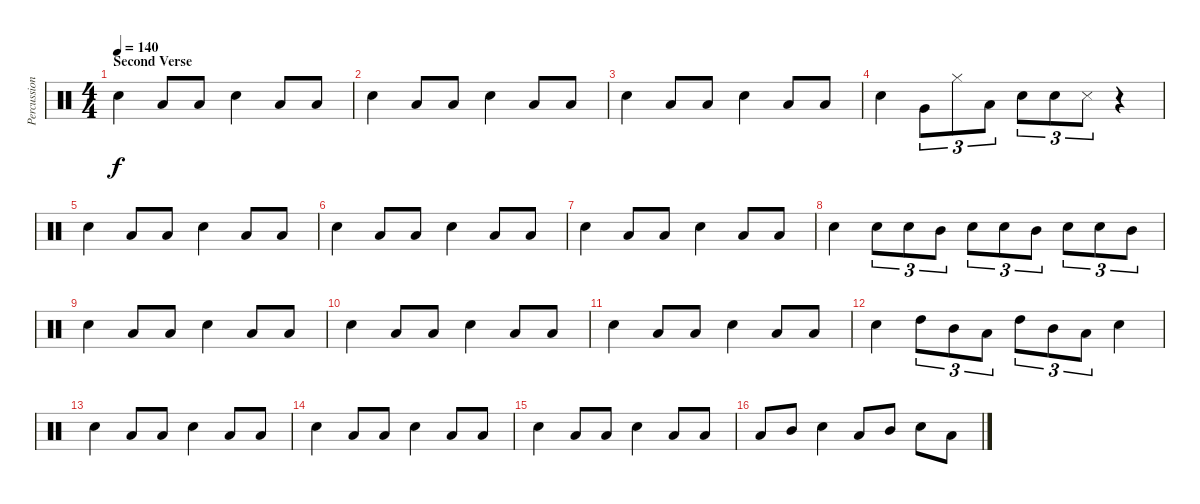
\track ("Percussion" "Percussion") {instrument percussion}
\staff {score}
\articulation defaults
\ts (4 4)
\section ("" "Second Verse")
\tempo 140
\clef neutral
\ks c "Electric Snare (hit)".4{dy f} "Low Floor Tom (hit)".8 "Low Floor Tom (hit)".8 "Electric Snare (hit)".4 "Low Floor Tom (hit)".8 "Low Floor Tom (hit)".8
|
"Electric Snare (hit)".4 "Low Floor Tom (hit)".8 "Low Floor Tom (hit)".8 "Electric Snare (hit)".4 "Low Floor Tom (hit)".8 "Low Floor Tom (hit)".8 |
"Electric Snare (hit)".4 "Low Floor Tom (hit)".8 "Low Floor Tom (hit)".8 "Electric Snare (hit)".4 "Low Floor Tom (hit)".8 "Low Floor Tom (hit)".8 |
"Electric Snare (hit)".4 "Very Low Tom (hit)".8{tu (3 2)} "Hi-Hat (closed)".8{tu (3 2)} "Low Floor Tom (hit)".8{tu (3 2)} "Electric Snare (hit)".8{tu (3 2)} "Snare (hit) 2".8{tu (3 2)} "Snare (side stick) 3".8{tu (3 2)} r.4 |
"Electric Snare (hit)".4 "Low Floor Tom (hit)".8 "Low Floor Tom (hit)".8 "Electric Snare (hit)".4 "Low Floor Tom (hit)".8 "Low Floor Tom (hit)".8 |
"Electric Snare (hit)".4 "Low Floor Tom (hit)".8 "Low Floor Tom (hit)".8 "Electric Snare (hit)".4 "Low Floor Tom (hit)".8 "Low Floor Tom (hit)".8 |
"Electric Snare (hit)".4 "Low Floor Tom (hit)".8 "Low Floor Tom (hit)".8 "Electric Snare (hit)".4 "Low Floor Tom (hit)".8 "Low Floor Tom (hit)".8 |
"Electric Snare (hit)".4 "Snare (hit) 2".8{tu (3 2)} "Snare (hit) 2".8{tu (3 2)} "Mid Tom (hit)".8{tu (3 2)} "Snare (hit) 2".8{tu (3 2)} "Snare (hit) 2".8{tu (3 2)} "Mid Tom (hit)".8{tu (3 2)} "Snare (hit) 2".8{tu (3 2)} "Snare (hit) 2".8{tu (3 2)} "Mid Tom (hit)".8{tu (3 2)} |
"Electric Snare (hit)".4 "Low Floor Tom (hit)".8 "Low Floor Tom (hit)".8 "Electric Snare (hit)".4 "Low Floor Tom (hit)".8 "Low Floor Tom (hit)".8 |
"Electric Snare (hit)".4 "Low Floor Tom (hit)".8 "Low Floor Tom (hit)".8 "Electric Snare (hit)".4 "Low Floor Tom (hit)".8 "Low Floor Tom (hit)".8 |
"Electric Snare (hit)".4 "Low Floor Tom (hit)".8 "Low Floor Tom (hit)".8 "Electric Snare (hit)".4 "Low Floor Tom (hit)".8 "Low Floor Tom (hit)".8 |
"Electric Snare (hit)".4 "High Tom (hit)".8{tu (3 2)} "Mid Tom (hit)".8{tu (3 2)} "Low Tom (hit)".8{tu (3 2)} "High Tom (hit)".8{tu (3 2)} "Mid Tom (hit)".8{tu (3 2)} "Low Tom (hit)".8{tu (3 2)} "Electric Snare (hit)".4 |
"Electric Snare (hit)".4 "Low Floor Tom (hit)".8 "Low Floor Tom (hit)".8 "Electric Snare (hit)".4 "Low Floor Tom (hit)".8 "Low Floor Tom (hit)".8 |
"Electric Snare (hit)".4 "Low Floor Tom (hit)".8 "Low Floor Tom (hit)".8 "Electric Snare (hit)".4 "Low Floor Tom (hit)".8 "Low Floor Tom (hit)".8 |
"Electric Snare (hit)".4 "Low Floor Tom (hit)".8 "Low Floor Tom (hit)".8 "Electric Snare (hit)".4 "Low Floor Tom (hit)".8 "Low Floor Tom (hit)".8 |
"Low Tom (hit)".8 "Mid Tom (hit)".8 "Snare (hit) 2".4 "Low Tom (hit)".8 "Mid Tom (hit)".8 "Snare (hit) 2".8 "Low Tom (hit)".8
